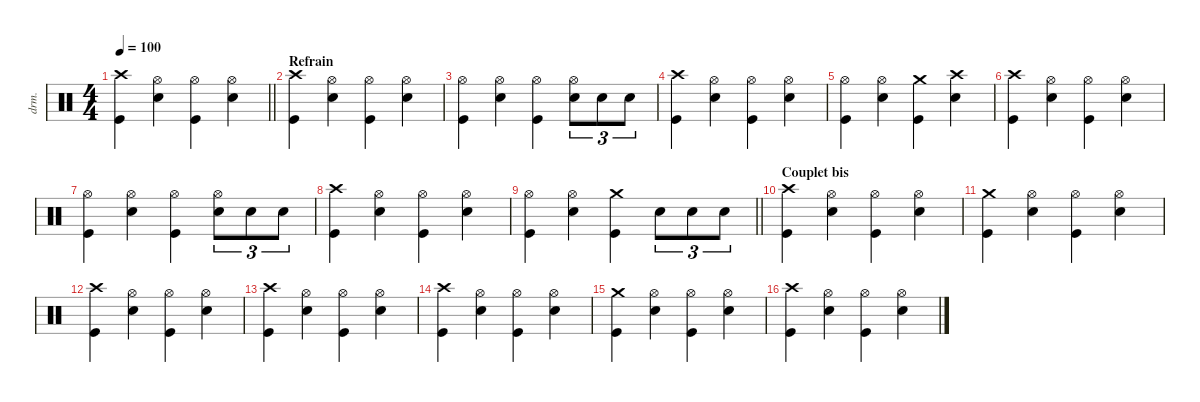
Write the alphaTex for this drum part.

\defaultSystemsLayout 4
\hideDynamics
\bracketExtendMode nobrackets
\otherSystemsTrackNameOrientation horizontal
\track ("Drumkit" "drm.") {instrument percussion}
\staff {score}
\articulation defaults
\ts (4 4)
\tempo 100
\clef neutral
\barLineRight lightlight
\ks c
("Crash high (hit)" "Kick (hit)").4{dy f} ("Hi-Hat (open)" "Snare (hit) 2").4 ("Hi-Hat (open)" "Kick (hit)").4 ("Hi-Hat (open)" "Snare (hit) 2").4 |
\section ("" "Refrain")
("Crash high (hit)" "Kick (hit)").4 ("Hi-Hat (open)" "Snare (hit) 2").4 ("Hi-Hat (open)" "Kick (hit)").4 ("Hi-Hat (open)" "Snare (hit) 2").4 |
("Hi-Hat (open)" "Kick (hit)").4 ("Hi-Hat (open)" "Snare (hit) 2").4 ("Hi-Hat (open)" "Kick (hit)").4 ("Hi-Hat (open)" "Snare (hit) 2").8{tu (3 2)} "Snare (hit) 2".8{tu (3 2)} "Snare (hit) 2".8{tu (3 2)} |
("Crash high (hit)" "Kick (hit)").4 ("Hi-Hat (open)" "Snare (hit) 2").4 ("Hi-Hat (open)" "Kick (hit)").4 ("Hi-Hat (open)" "Snare (hit) 2").4 |
("Hi-Hat (open)" "Kick (hit)").4 ("Hi-Hat (open)" "Snare (hit) 2").4 ("Crash medium (hit)" "Kick (hit)").4 ("Crash high (hit)" "Snare (hit) 2").4 |
("Crash high (hit)" "Kick (hit)").4 ("Hi-Hat (open)" "Snare (hit) 2").4 ("Hi-Hat (open)" "Kick (hit)").4 ("Hi-Hat (open)" "Snare (hit) 2").4 |
("Hi-Hat (open)" "Kick (hit)").4 ("Hi-Hat (open)" "Snare (hit) 2").4 ("Hi-Hat (open)" "Kick (hit)").4 ("Hi-Hat (open)" "Snare (hit) 2").8{tu (3 2)} "Snare (hit) 2".8{tu (3 2)} "Snare (hit) 2".8{tu (3 2)} |
("Crash high (hit)" "Kick (hit)").4 ("Hi-Hat (open)" "Snare (hit) 2").4 ("Hi-Hat (open)" "Kick (hit)").4 ("Hi-Hat (open)" "Snare (hit) 2").4 |
\barLineRight lightlight
("Hi-Hat (open)" "Kick (hit)").4 ("Hi-Hat (open)" "Snare (hit) 2").4 ("Crash medium (hit)" "Kick (hit)").4 "Snare (hit) 2".8{tu (3 2)} "Snare (hit) 2".8{tu (3 2)} "Snare (hit) 2".8{tu (3 2)} |
\section ("" "Couplet bis")
("Crash high (hit)" "Kick (hit)").4 ("Hi-Hat (open)" "Snare (hit) 2").4 ("Hi-Hat (open)" "Kick (hit)").4 ("Hi-Hat (open)" "Snare (hit) 2").4 |
("Crash medium (hit)" "Kick (hit)").4 ("Hi-Hat (open)" "Snare (hit) 2").4 ("Hi-Hat (open)" "Kick (hit)").4 ("Hi-Hat (open)" "Snare (hit) 2").4 |
("Crash high (hit)" "Kick (hit)").4 ("Hi-Hat (open)" "Snare (hit) 2").4 ("Hi-Hat (open)" "Kick (hit)").4 ("Hi-Hat (open)" "Snare (hit) 2").4 |
("Crash high (hit)" "Kick (hit)").4 ("Hi-Hat (open)" "Snare (hit) 2").4 ("Hi-Hat (open)" "Kick (hit)").4 ("Hi-Hat (open)" "Snare (hit) 2").4 |
("Crash high (hit)" "Kick (hit)").4 ("Hi-Hat (open)" "Snare (hit) 2").4 ("Hi-Hat (open)" "Kick (hit)").4 ("Hi-Hat (open)" "Snare (hit) 2").4 |
("Crash medium (hit)" "Kick (hit)").4 ("Hi-Hat (open)" "Snare (hit) 2").4 ("Hi-Hat (open)" "Kick (hit)").4 ("Hi-Hat (open)" "Snare (hit) 2").4 |
("Crash high (hit)" "Kick (hit)").4 ("Hi-Hat (open)" "Snare (hit) 2").4 ("Hi-Hat (open)" "Kick (hit)").4 ("Hi-Hat (open)" "Snare (hit) 2").4
